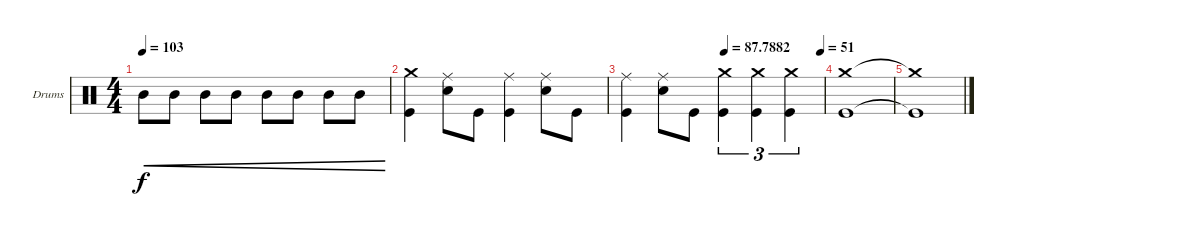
\bracketExtendMode groupsimilarinstruments
\firstSystemTrackNameOrientation horizontal
\otherSystemsTrackNameOrientation horizontal
\track ("Drumkit (Mason)" "Drums") {instrument percussion}
\staff {score}
\articulation defaults
\ts (4 4)
\tempo 103
\clef neutral
\ks c "Mid Tom (hit)".8{cre dy f} "Mid Tom (hit)".8{cre} "Mid Tom (hit)".8{cre} "Mid Tom (hit)".8{cre} "Mid Tom (hit)".8{cre} "Mid Tom (hit)".8{cre} "Mid Tom (hit)".8{cre} "Mid Tom (hit)".8{cre}
|
("Kick (hit)" "Crash medium (hit)").4 ("Snare (hit) 2" "Ride (middle)").8 "Kick (hit)".8 ("Kick (hit)" "Ride (middle)").4 ("Snare (hit) 2" "Ride (middle)").8 "Kick (hit)".8 |
\tempo (87.7882 0.5)
\tempo (51 0.985075)
("Kick (hit)" "Ride (middle)").4 ("Snare (hit) 2" "Ride (middle)").8 "Kick (hit)".8 ("Kick (hit)" "Crash medium (hit)").4{tu (3 2)} ("Kick (hit)" "Crash medium (hit)").4{tu (3 2)} ("Kick (hit)" "Crash medium (hit)").4{tu (3 2)} |
("Kick (hit)" "Crash medium (hit)").1 |
("Kick (hit)"{t} "Crash medium (hit)"{t}).1
